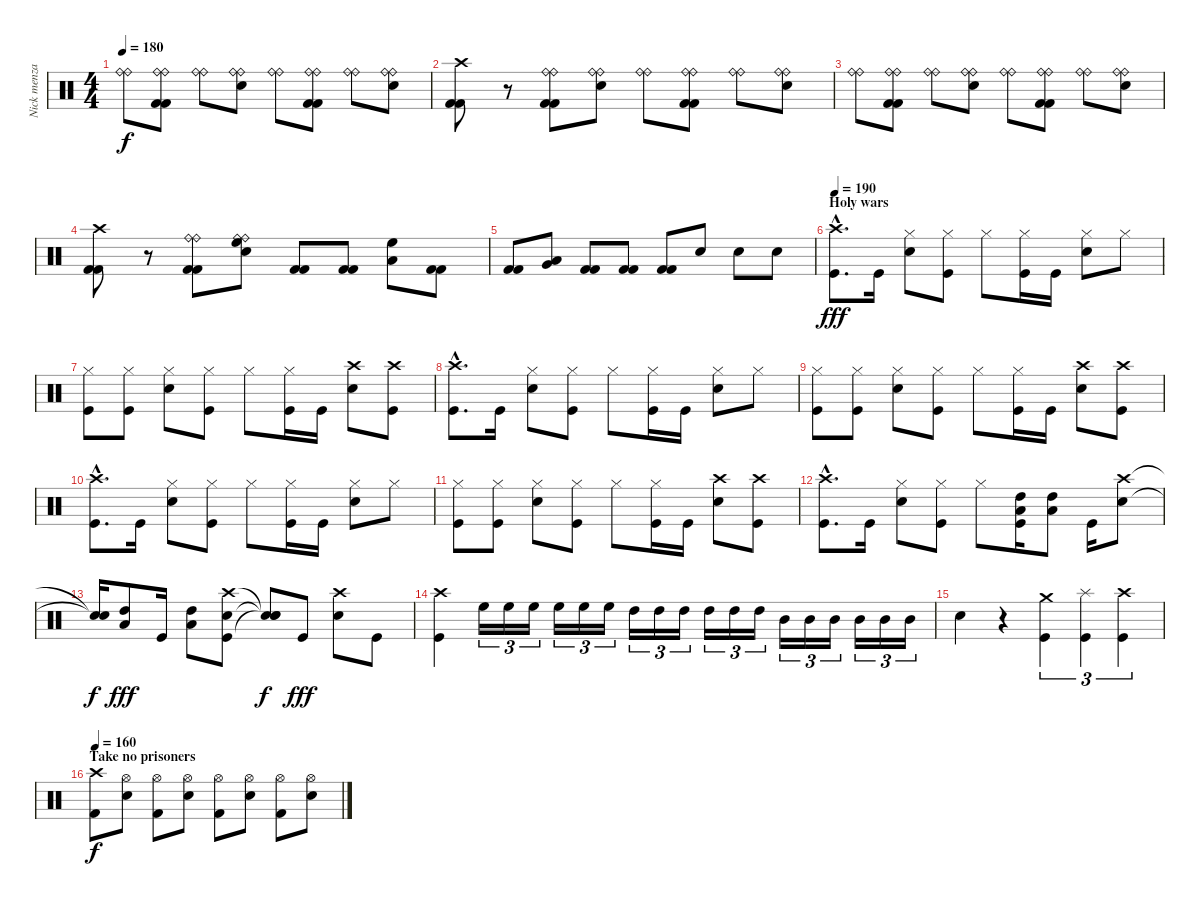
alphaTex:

\track ("Nick menza/Jimmy de grasso" "Nick menza") {instrument percussion}
\staff {score}
\articulation defaults
\ts (4 4)
\tempo 180
\clef neutral
\ks c
("Ride (bell)" "Ride (bell)").8{dy f} ("Ride (bell)" "Ride (bell)" "Kick (hit) 2" "Kick (hit) 2").8 ("Ride (bell)" "Ride (bell)").8 ("Ride (bell)" "Ride (bell)" "Electric Snare (hit)").8 ("Ride (bell)" "Ride (bell)").8 ("Ride (bell)" "Ride (bell)" "Kick (hit) 2" "Kick (hit) 2").8 ("Ride (bell)" "Ride (bell)").8 ("Ride (bell)" "Ride (bell)" "Electric Snare (hit)").8 |
("Crash high (hit)" "Kick (hit) 2" "Kick (hit) 2").8 r.8 ("Ride (bell)" "Ride (bell)" "Kick (hit) 2" "Kick (hit) 2").8 ("Ride (bell)" "Ride (bell)" "Electric Snare (hit)").8 ("Ride (bell)" "Ride (bell)").8 ("Ride (bell)" "Ride (bell)" "Kick (hit) 2" "Kick (hit) 2").8 ("Ride (bell)" "Ride (bell)").8 ("Ride (bell)" "Ride (bell)" "Electric Snare (hit)").8 |
("Ride (bell)" "Ride (bell)").8 ("Ride (bell)" "Ride (bell)" "Kick (hit) 2" "Kick (hit) 2").8 ("Ride (bell)" "Ride (bell)").8 ("Ride (bell)" "Ride (bell)" "Electric Snare (hit)").8 ("Ride (bell)" "Ride (bell)").8 ("Ride (bell)" "Ride (bell)" "Kick (hit) 2" "Kick (hit) 2").8 ("Ride (bell)" "Ride (bell)").8 ("Ride (bell)" "Ride (bell)" "Electric Snare (hit)").8 |
("Crash high (hit)" "Kick (hit) 2" "Kick (hit) 2").8 r.8 ("Ride (bell)" "Ride (bell)" "Kick (hit) 2" "Kick (hit) 2").8 ("Ride (bell)" "Ride (bell)" "Electric Snare (hit)" "High Floor Tom (hit)").8 ("Kick (hit) 2" "Kick (hit) 2").8 ("Kick (hit) 2" "Kick (hit) 2").8 ("Low Tom (hit)" "High Floor Tom (hit)").8 ("Kick (hit) 2" "Kick (hit) 2").8 |
("Kick (hit) 2" "Kick (hit) 2").8 ("Very Low Tom (hit)" "Low Tom (hit)").8 ("Kick (hit) 2" "Kick (hit) 2").8 ("Kick (hit) 2" "Kick (hit) 2").8 ("Kick (hit) 2" "Kick (hit) 2").8 "Electric Snare (hit)".8 "Electric Snare (hit)".8 "Electric Snare (hit)".8 |
\section ("" "Holy wars")
\tempo 190
("Kick (hit)"{hac} "Crash high (hit)"{hac}).8{d dy fff} "Kick (hit)".16 ("Hi-Hat (closed)" "Snare (hit) 2").8 ("Kick (hit)" "Hi-Hat (closed)").8 "Hi-Hat (closed)".8 ("Kick (hit)" "Hi-Hat (closed)").16 "Kick (hit)".16 ("Hi-Hat (closed)" "Snare (hit) 2").8 "Hi-Hat (closed)".8 |
("Kick (hit)" "Hi-Hat (closed)").8 ("Kick (hit)" "Hi-Hat (closed)").8 ("Hi-Hat (closed)" "Snare (hit) 2").8 ("Kick (hit)" "Hi-Hat (closed)").8 "Hi-Hat (closed)".8 ("Kick (hit)" "Hi-Hat (closed)").16 "Kick (hit)".16 ("Crash high (hit)" "Snare (hit) 2").8 ("Kick (hit)" "Crash high (hit)").8 |
("Kick (hit)"{hac} "Crash high (hit)"{hac}).8{d} "Kick (hit)".16 ("Hi-Hat (closed)" "Snare (hit) 2").8 ("Kick (hit)" "Hi-Hat (closed)").8 "Hi-Hat (closed)".8 ("Kick (hit)" "Hi-Hat (closed)").16 "Kick (hit)".16 ("Hi-Hat (closed)" "Snare (hit) 2").8 "Hi-Hat (closed)".8 |
("Kick (hit)" "Hi-Hat (closed)").8 ("Kick (hit)" "Hi-Hat (closed)").8 ("Hi-Hat (closed)" "Snare (hit) 2").8 ("Kick (hit)" "Hi-Hat (closed)").8 "Hi-Hat (closed)".8 ("Kick (hit)" "Hi-Hat (closed)").16 "Kick (hit)".16 ("Crash high (hit)" "Snare (hit) 2").8 ("Kick (hit)" "Crash high (hit)").8 |
("Kick (hit)"{hac} "Crash high (hit)"{hac}).8{d} "Kick (hit)".16 ("Hi-Hat (closed)" "Snare (hit) 2").8 ("Kick (hit)" "Hi-Hat (closed)").8 "Hi-Hat (closed)".8 ("Kick (hit)" "Hi-Hat (closed)").16 "Kick (hit)".16 ("Hi-Hat (closed)" "Snare (hit) 2").8 "Hi-Hat (closed)".8 |
("Kick (hit)" "Hi-Hat (closed)").8 ("Kick (hit)" "Hi-Hat (closed)").8 ("Hi-Hat (closed)" "Snare (hit) 2").8 ("Kick (hit)" "Hi-Hat (closed)").8 "Hi-Hat (closed)".8 ("Kick (hit)" "Hi-Hat (closed)").16 "Kick (hit)".16 ("Crash high (hit)" "Snare (hit) 2").8 ("Kick (hit)" "Crash high (hit)").8 |
("Kick (hit)"{hac} "Crash high (hit)"{hac}).8{d} "Kick (hit)".16 ("Hi-Hat (closed)" "Snare (hit) 2").8 ("Kick (hit)" "Hi-Hat (closed)").8 "Hi-Hat (closed)".8 ("Kick (hit)" "Low Tom (hit)" "High Tom (hit)").16 ("Low Tom (hit)" "High Tom (hit)").8 "Kick (hit)".16 ("Crash high (hit)" "Snare (hit) 2").8 |
("Snare (hit)"{t} "Snare (hit)"{t}).16{dy f} ("Low Tom (hit)" "High Tom (hit)").8{dy fff} "Kick (hit)".16 ("Low Tom (hit)" "High Tom (hit)").8 ("Kick (hit)" "Snare (hit) 2" "Crash high (hit)").8 ("Snare (hit)"{t} "Snare (hit)"{t} "Snare (hit)"{t}).8{dy f} "Kick (hit)".8{dy fff} ("Snare (hit) 2" "Crash high (hit)").8 "Kick (hit)".8 |
("Kick (hit)" "Crash high (hit)").4 "High Floor Tom (hit)".16{tu (3 2)} "High Floor Tom (hit)".16{tu (3 2)} "High Floor Tom (hit)".16{tu (3 2)} "High Floor Tom (hit)".16{tu (3 2)} "High Floor Tom (hit)".16{tu (3 2)} "High Floor Tom (hit)".16{tu (3 2)} "High Tom (hit)".16{tu (3 2)} "High Tom (hit)".16{tu (3 2)} "High Tom (hit)".16{tu (3 2)} "High Tom (hit)".16{tu (3 2)} "High Tom (hit)".16{tu (3 2)} "High Tom (hit)".16{tu (3 2)} "Mid Tom (hit)".16{tu (3 2)} "Mid Tom (hit)".16{tu (3 2)} "Mid Tom (hit)".16{tu (3 2)} "Mid Tom (hit)".16{tu (3 2)} "Mid Tom (hit)".16{tu (3 2)} "Mid Tom (hit)".16{tu (3 2)} |
"Snare (hit) 2".4 r.4 ("Kick (hit)" "Crash medium (hit)").4{tu (3 2)} ("Kick (hit)" "Splash (hit)").4{tu (3 2)} ("Kick (hit)" "Crash high (hit)").4{tu (3 2)} |
\section ("" "Take no prisoners")
\tempo 160
("Crash high (hit)" "Kick (hit) 2").8{dy f} ("Hi-Hat (open)" "Snare (hit) 2").8 ("Hi-Hat (open)" "Kick (hit) 2").8 ("Hi-Hat (open)" "Snare (hit) 2").8 ("Hi-Hat (open)" "Kick (hit) 2").8 ("Hi-Hat (open)" "Snare (hit) 2").8 ("Hi-Hat (open)" "Kick (hit) 2").8 ("Hi-Hat (open)" "Snare (hit) 2").8
